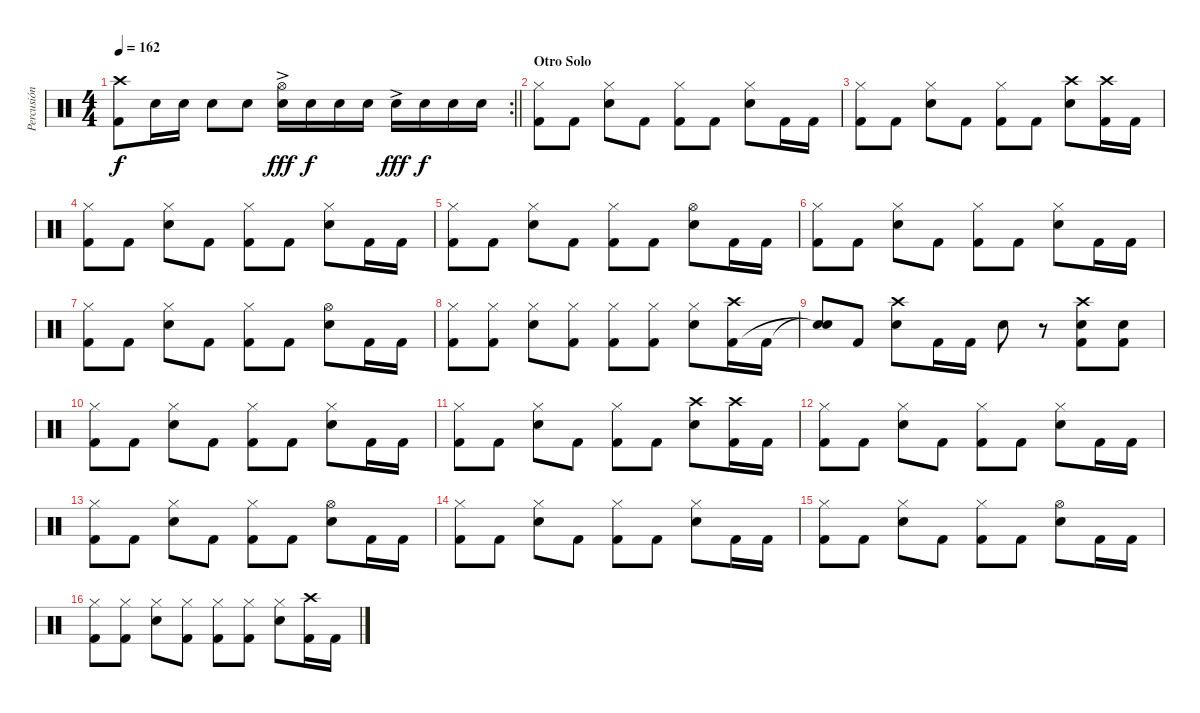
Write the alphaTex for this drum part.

\track ("Percusión" "Percusión") {instrument percussion}
\staff {score}
\articulation defaults
\rc 2
\ts (4 4)
\tempo 162
\clef neutral
\barLineRight lightlight
\ks c
("Crash high (hit)" "Kick (hit) 2").8{dy f} "Electric Snare (hit)".16 "Electric Snare (hit)".16 "Electric Snare (hit)".8 "Electric Snare (hit)".8 ("Hi-Hat (open)" "Electric Snare (hit)"{ac}).16{dy fff} "Electric Snare (hit)".16{dy f} "Electric Snare (hit)".16 "Electric Snare (hit)".16 "Electric Snare (hit)"{ac}.16{dy fff} "Electric Snare (hit)".16{dy f} "Electric Snare (hit)".16 "Electric Snare (hit)".16 |
\section ("" "Otro Solo")
("Hi-Hat (closed)" "Kick (hit) 2").8 "Kick (hit) 2".8 ("Hi-Hat (closed)" "Electric Snare (hit)").8 "Kick (hit) 2".8 ("Hi-Hat (closed)" "Kick (hit) 2").8 "Kick (hit) 2".8 ("Hi-Hat (closed)" "Electric Snare (hit)").8 "Kick (hit) 2".16 "Kick (hit) 2".16 |
("Hi-Hat (closed)" "Kick (hit) 2").8 "Kick (hit) 2".8 ("Hi-Hat (closed)" "Electric Snare (hit)").8 "Kick (hit) 2".8 ("Hi-Hat (closed)" "Kick (hit) 2").8 "Kick (hit) 2".8 ("Crash high (hit)" "Electric Snare (hit)").8 ("Crash high (hit)" "Kick (hit) 2").16 "Kick (hit) 2".16 |
("Hi-Hat (closed)" "Kick (hit) 2").8 "Kick (hit) 2".8 ("Hi-Hat (closed)" "Electric Snare (hit)").8 "Kick (hit) 2".8 ("Hi-Hat (closed)" "Kick (hit) 2").8 "Kick (hit) 2".8 ("Hi-Hat (closed)" "Electric Snare (hit)").8 "Kick (hit) 2".16 "Kick (hit) 2".16 |
("Hi-Hat (closed)" "Kick (hit) 2").8 "Kick (hit) 2".8 ("Hi-Hat (closed)" "Electric Snare (hit)").8 "Kick (hit) 2".8 ("Hi-Hat (closed)" "Kick (hit) 2").8 "Kick (hit) 2".8 ("Hi-Hat (open)" "Electric Snare (hit)").8 "Kick (hit) 2".16 "Kick (hit) 2".16 |
("Hi-Hat (closed)" "Kick (hit) 2").8 "Kick (hit) 2".8 ("Hi-Hat (closed)" "Electric Snare (hit)").8 "Kick (hit) 2".8 ("Hi-Hat (closed)" "Kick (hit) 2").8 "Kick (hit) 2".8 ("Hi-Hat (closed)" "Electric Snare (hit)").8 "Kick (hit) 2".16 "Kick (hit) 2".16 |
("Hi-Hat (closed)" "Kick (hit) 2").8 "Kick (hit) 2".8 ("Hi-Hat (closed)" "Electric Snare (hit)").8 "Kick (hit) 2".8 ("Hi-Hat (closed)" "Kick (hit) 2").8 "Kick (hit) 2".8 ("Hi-Hat (open)" "Electric Snare (hit)").8 "Kick (hit) 2".16 "Kick (hit) 2".16 |
("Hi-Hat (closed)" "Kick (hit) 2").8 ("Hi-Hat (closed)" "Kick (hit) 2").8 ("Hi-Hat (closed)" "Electric Snare (hit)").8 ("Hi-Hat (closed)" "Kick (hit) 2").8 ("Hi-Hat (closed)" "Kick (hit) 2").8 ("Hi-Hat (closed)" "Kick (hit) 2").8 ("Hi-Hat (closed)" "Electric Snare (hit)").8 ("Crash high (hit)" "Kick (hit) 2").16 "Kick (hit) 2".16 |
("Snare (hit)"{t} "Snare (hit)"{t}).8 "Kick (hit) 2".8 ("Crash high (hit)" "Electric Snare (hit)").8 "Kick (hit) 2".16 "Kick (hit) 2".16 "Electric Snare (hit)".8 r.8 ("Crash high (hit)" "Electric Snare (hit)" "Kick (hit) 2").8 ("Electric Snare (hit)" "Kick (hit) 2").8 |
("Hi-Hat (closed)" "Kick (hit) 2").8 "Kick (hit) 2".8 ("Hi-Hat (closed)" "Electric Snare (hit)").8 "Kick (hit) 2".8 ("Hi-Hat (closed)" "Kick (hit) 2").8 "Kick (hit) 2".8 ("Hi-Hat (closed)" "Electric Snare (hit)").8 "Kick (hit) 2".16 "Kick (hit) 2".16 |
("Hi-Hat (closed)" "Kick (hit) 2").8 "Kick (hit) 2".8 ("Hi-Hat (closed)" "Electric Snare (hit)").8 "Kick (hit) 2".8 ("Hi-Hat (closed)" "Kick (hit) 2").8 "Kick (hit) 2".8 ("Crash high (hit)" "Electric Snare (hit)").8 ("Crash high (hit)" "Kick (hit) 2").16 "Kick (hit) 2".16 |
("Hi-Hat (closed)" "Kick (hit) 2").8 "Kick (hit) 2".8 ("Hi-Hat (closed)" "Electric Snare (hit)").8 "Kick (hit) 2".8 ("Hi-Hat (closed)" "Kick (hit) 2").8 "Kick (hit) 2".8 ("Hi-Hat (closed)" "Electric Snare (hit)").8 "Kick (hit) 2".16 "Kick (hit) 2".16 |
("Hi-Hat (closed)" "Kick (hit) 2").8 "Kick (hit) 2".8 ("Hi-Hat (closed)" "Electric Snare (hit)").8 "Kick (hit) 2".8 ("Hi-Hat (closed)" "Kick (hit) 2").8 "Kick (hit) 2".8 ("Hi-Hat (open)" "Electric Snare (hit)").8 "Kick (hit) 2".16 "Kick (hit) 2".16 |
("Hi-Hat (closed)" "Kick (hit) 2").8 "Kick (hit) 2".8 ("Hi-Hat (closed)" "Electric Snare (hit)").8 "Kick (hit) 2".8 ("Hi-Hat (closed)" "Kick (hit) 2").8 "Kick (hit) 2".8 ("Hi-Hat (closed)" "Electric Snare (hit)").8 "Kick (hit) 2".16 "Kick (hit) 2".16 |
("Hi-Hat (closed)" "Kick (hit) 2").8 "Kick (hit) 2".8 ("Hi-Hat (closed)" "Electric Snare (hit)").8 "Kick (hit) 2".8 ("Hi-Hat (closed)" "Kick (hit) 2").8 "Kick (hit) 2".8 ("Hi-Hat (open)" "Electric Snare (hit)").8 "Kick (hit) 2".16 "Kick (hit) 2".16 |
("Hi-Hat (closed)" "Kick (hit) 2").8 ("Hi-Hat (closed)" "Kick (hit) 2").8 ("Hi-Hat (closed)" "Electric Snare (hit)").8 ("Hi-Hat (closed)" "Kick (hit) 2").8 ("Hi-Hat (closed)" "Kick (hit) 2").8 ("Hi-Hat (closed)" "Kick (hit) 2").8 ("Hi-Hat (closed)" "Electric Snare (hit)").8 ("Crash high (hit)" "Kick (hit) 2").16 "Kick (hit) 2".16
